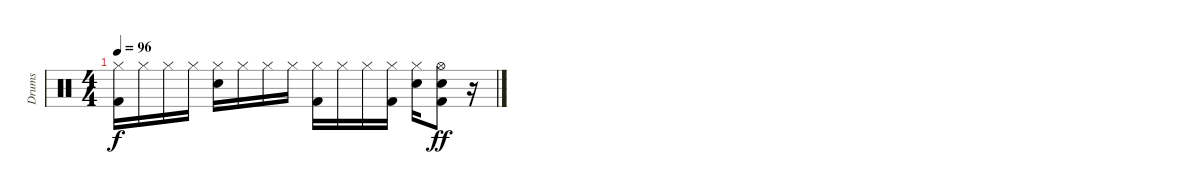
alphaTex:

\track ("Drums" "Drums") {instrument percussion}
\staff {score}
\articulation defaults
\ts (4 4)
\tempo 96
\clef neutral
\ks c
("Hi-Hat (closed)" "Kick (hit) 2").16{dy f} "Hi-Hat (closed)".16 "Hi-Hat (closed)".16 "Hi-Hat (closed)".16 ("Hi-Hat (closed)" "Electric Snare (hit)").16 "Hi-Hat (closed)".16 "Hi-Hat (closed)".16 "Hi-Hat (closed)".16 ("Hi-Hat (closed)" "Kick (hit) 2").16 "Hi-Hat (closed)".16 "Hi-Hat (closed)".16 ("Hi-Hat (closed)" "Kick (hit) 2").16 ("Hi-Hat (closed)" "Electric Snare (hit)").16 ("Hi-Hat (open)" "Electric Snare (hit)" "Kick (hit) 2").8{dy ff} r.16
